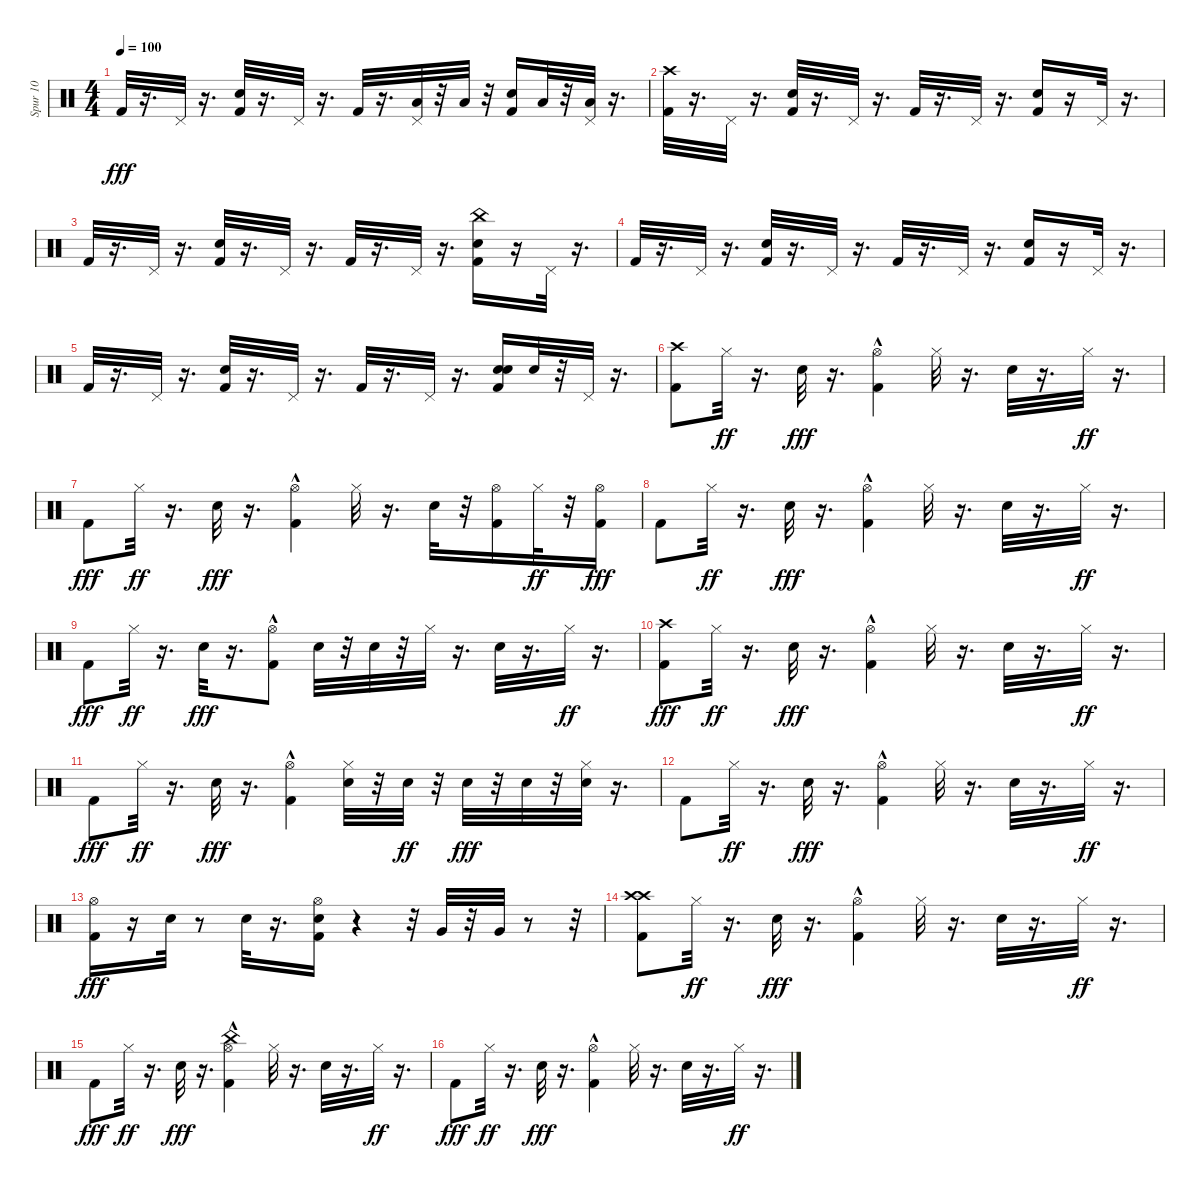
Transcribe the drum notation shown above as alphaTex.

\track ("Spur 10" "Spur 10") {instrument percussion}
\staff {score}
\articulation defaults
\ts (4 4)
\tempo 100
\clef neutral
\ks c "Kick (hit) 2".32{dy fff}
r.16{d} "Pedal Hi-Hat (hit)".32 r.16{d} ("Electric Snare (hit)" "Kick (hit) 2").32 r.16{d} "Pedal Hi-Hat (hit)".32 r.16{d} "Kick (hit) 2".32 r.16{d} ("Pedal Hi-Hat (hit)" "Low Tom (hit)").32 r.32 "Low Tom (hit)".32 r.32 ("Electric Snare (hit)" "Kick (hit) 2").16 "Low Tom (hit)".32 r.32 ("Pedal Hi-Hat (hit)" "Low Tom (hit)").32 r.16{d} |
("Kick (hit) 2" "Crash high (hit)").32 r.16{d} "Pedal Hi-Hat (hit)".32 r.16{d} ("Electric Snare (hit)" "Kick (hit) 2").32 r.16{d} "Pedal Hi-Hat (hit)".32 r.16{d} "Kick (hit) 2".32 r.16{d} "Pedal Hi-Hat (hit)".32 r.16{d} ("Electric Snare (hit)" "Kick (hit) 2").16 r.16 "Pedal Hi-Hat (hit)".32 r.16{d} |
"Kick (hit) 2".32 r.16{d} "Pedal Hi-Hat (hit)".32 r.16{d} ("Electric Snare (hit)" "Kick (hit) 2").32 r.16{d} "Pedal Hi-Hat (hit)".32 r.16{d} "Kick (hit) 2".32 r.16{d} "Pedal Hi-Hat (hit)".32 r.16{d} ("Electric Snare (hit)" "Kick (hit) 2" "China (hit)").16 r.16 "Pedal Hi-Hat (hit)".32 r.16{d} |
"Kick (hit) 2".32 r.16{d} "Pedal Hi-Hat (hit)".32 r.16{d} ("Electric Snare (hit)" "Kick (hit) 2").32 r.16{d} "Pedal Hi-Hat (hit)".32 r.16{d} "Kick (hit) 2".32 r.16{d} "Pedal Hi-Hat (hit)".32 r.16{d} ("Electric Snare (hit)" "Kick (hit) 2").16 r.16 "Pedal Hi-Hat (hit)".32 r.16{d} |
"Kick (hit) 2".32 r.16{d} "Pedal Hi-Hat (hit)".32 r.16{d} ("Electric Snare (hit)" "Kick (hit) 2").32 r.16{d} "Pedal Hi-Hat (hit)".32 r.16{d} "Kick (hit) 2".32 r.16{d} "Pedal Hi-Hat (hit)".32 r.16{d} ("Electric Snare (hit)" "Kick (hit) 2" "Snare (hit) 2").16 "Snare (hit) 2".32 r.32 "Pedal Hi-Hat (hit)".32 r.16{d} |
("Kick (hit) 2" "Crash high (hit)").8 "Hi-Hat (closed)".32{dy ff} r.16{d} "Electric Snare (hit)".32{dy fff} r.16{d} ("Kick (hit) 2"{hac} "Hi-Hat (open)").4 "Hi-Hat (closed)".32 r.16{d} "Electric Snare (hit)".32 r.16{d} "Hi-Hat (closed)".32{dy ff} r.16{d} |
"Kick (hit) 2".8{dy fff} "Hi-Hat (closed)".32{dy ff} r.16{d} "Electric Snare (hit)".32{dy fff} r.16{d} ("Kick (hit) 2"{hac} "Hi-Hat (open)").4 "Hi-Hat (closed)".32 r.16{d} "Electric Snare (hit)".32 r.32 ("Hi-Hat (open)" "Kick (hit) 2").16 "Hi-Hat (closed)".32{dy ff} r.32 ("Kick (hit) 2" "Hi-Hat (open)").16{dy fff} |
"Kick (hit) 2".8 "Hi-Hat (closed)".32{dy ff} r.16{d} "Electric Snare (hit)".32{dy fff} r.16{d} ("Kick (hit) 2"{hac} "Hi-Hat (open)").4 "Hi-Hat (closed)".32 r.16{d} "Electric Snare (hit)".32 r.16{d} "Hi-Hat (closed)".32{dy ff} r.16{d} |
"Kick (hit) 2".8{dy fff} "Hi-Hat (closed)".32{dy ff} r.16{d} "Electric Snare (hit)".32{dy fff} r.16{d} ("Kick (hit) 2"{hac} "Hi-Hat (open)").8 "Hand Clap (hit)".32 r.32 "Hand Clap (hit)".32 r.32 "Hi-Hat (closed)".32 r.16{d} "Electric Snare (hit)".32 r.16{d} "Hi-Hat (closed)".32{dy ff} r.16{d} |
("Kick (hit) 2" "Crash high (hit)").8{dy fff} "Hi-Hat (closed)".32{dy ff} r.16{d} "Electric Snare (hit)".32{dy fff} r.16{d} ("Kick (hit) 2"{hac} "Hi-Hat (open)").4 "Hi-Hat (closed)".32 r.16{d} "Electric Snare (hit)".32 r.16{d} "Hi-Hat (closed)".32{dy ff} r.16{d} |
"Kick (hit) 2".8{dy fff} "Hi-Hat (closed)".32{dy ff} r.16{d} "Electric Snare (hit)".32{dy fff} r.16{d} ("Kick (hit) 2"{hac} "Hi-Hat (open)").4 ("Hi-Hat (closed)" "Electric Snare (hit)").32 r.32 "Electric Snare (hit)".32{dy ff} r.32 "Electric Snare (hit)".32{dy fff} r.32 "Electric Snare (hit)".32 r.32 ("Hi-Hat (closed)" "Electric Snare (hit)").32 r.16{d} |
"Kick (hit) 2".8 "Hi-Hat (closed)".32{dy ff} r.16{d} "Electric Snare (hit)".32{dy fff} r.16{d} ("Kick (hit) 2"{hac} "Hi-Hat (open)").4 "Hi-Hat (closed)".32 r.16{d} "Electric Snare (hit)".32 r.16{d} "Hi-Hat (closed)".32{dy ff} r.16{d} |
("Kick (hit) 2" "Hi-Hat (open)").16{dy fff} r.16 "Electric Snare (hit)".32 r.8 "Electric Snare (hit)".32 r.16{d} ("Kick (hit) 2" "Hi-Hat (open)" "Snare (hit) 2").16 r.4 r.32 "Very Low Tom (hit)".32 r.32 "Very Low Tom (hit)".32 r.8 r.32 |
("Crash high (hit)" "Kick (hit) 2" "Crash high (hit)").8 "Hi-Hat (closed)".32{dy ff} r.16{d} "Electric Snare (hit)".32{dy fff} r.16{d} ("Kick (hit) 2"{hac} "Hi-Hat (open)").4 "Hi-Hat (closed)".32 r.16{d} "Electric Snare (hit)".32 r.16{d} "Hi-Hat (closed)".32{dy ff} r.16{d} |
"Kick (hit) 2".8{dy fff} "Hi-Hat (closed)".32{dy ff} r.16{d} "Electric Snare (hit)".32{dy fff} r.16{d} ("China (hit)"{hac} "Kick (hit) 2"{hac} "Hi-Hat (open)").4 "Hi-Hat (closed)".32 r.16{d} "Electric Snare (hit)".32 r.16{d} "Hi-Hat (closed)".32{dy ff} r.16{d} |
"Kick (hit) 2".8{dy fff} "Hi-Hat (closed)".32{dy ff} r.16{d} "Electric Snare (hit)".32{dy fff} r.16{d} ("Kick (hit) 2"{hac} "Hi-Hat (open)").4 "Hi-Hat (closed)".32 r.16{d} "Electric Snare (hit)".32 r.16{d} "Hi-Hat (closed)".32{dy ff} r.16{d}
